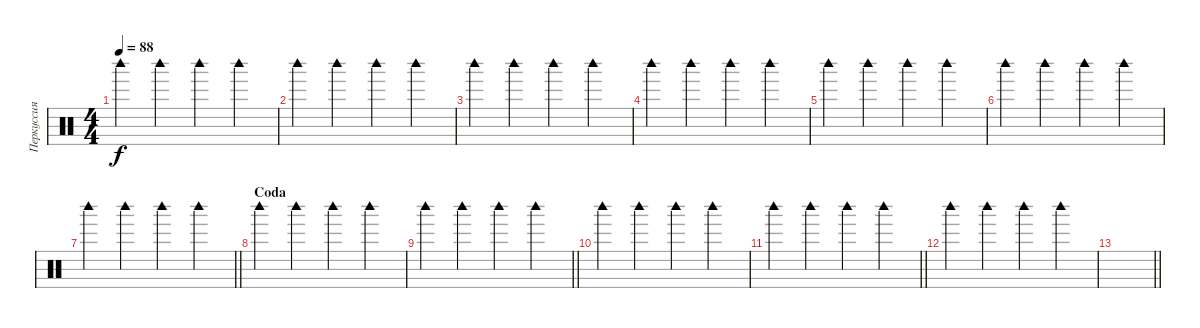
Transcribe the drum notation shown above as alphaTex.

\track ("Перкуссия 2" "Перкуссия ") {instrument percussion}
\staff {score}
\articulation defaults
\ts (4 4)
\tempo 88
\clef neutral
\ks c "Woodblock high (hit)".4{dy f} "Woodblock high (hit)".4 "Woodblock high (hit)".4 "Woodblock high (hit)".4
|
"Woodblock high (hit)".4 "Woodblock high (hit)".4 "Woodblock high (hit)".4 "Woodblock high (hit)".4 |
"Woodblock high (hit)".4 "Woodblock high (hit)".4 "Woodblock high (hit)".4 "Woodblock high (hit)".4 |
"Woodblock high (hit)".4 "Woodblock high (hit)".4 "Woodblock high (hit)".4 "Woodblock high (hit)".4 |
"Woodblock high (hit)".4 "Woodblock high (hit)".4 "Woodblock high (hit)".4 "Woodblock high (hit)".4 |
"Woodblock high (hit)".4 "Woodblock high (hit)".4 "Woodblock high (hit)".4 "Woodblock high (hit)".4 |
\barLineRight lightlight "Woodblock high (hit)".4 "Woodblock high (hit)".4 "Woodblock high (hit)".4 "Woodblock high (hit)".4
|
\section ("" "Coda")
"Woodblock high (hit)".4 "Woodblock high (hit)".4 "Woodblock high (hit)".4 "Woodblock high (hit)".4 |
\barLineRight lightlight "Woodblock high (hit)".4 "Woodblock high (hit)".4 "Woodblock high (hit)".4 "Woodblock high (hit)".4
|
"Woodblock high (hit)".4 "Woodblock high (hit)".4 "Woodblock high (hit)".4 "Woodblock high (hit)".4 |
\barLineRight lightlight "Woodblock high (hit)".4 "Woodblock high (hit)".4 "Woodblock high (hit)".4 "Woodblock high (hit)".4
|
"Woodblock high (hit)".4 "Woodblock high (hit)".4 "Woodblock high (hit)".4 "Woodblock high (hit)".4 |
\barLineRight lightlight
